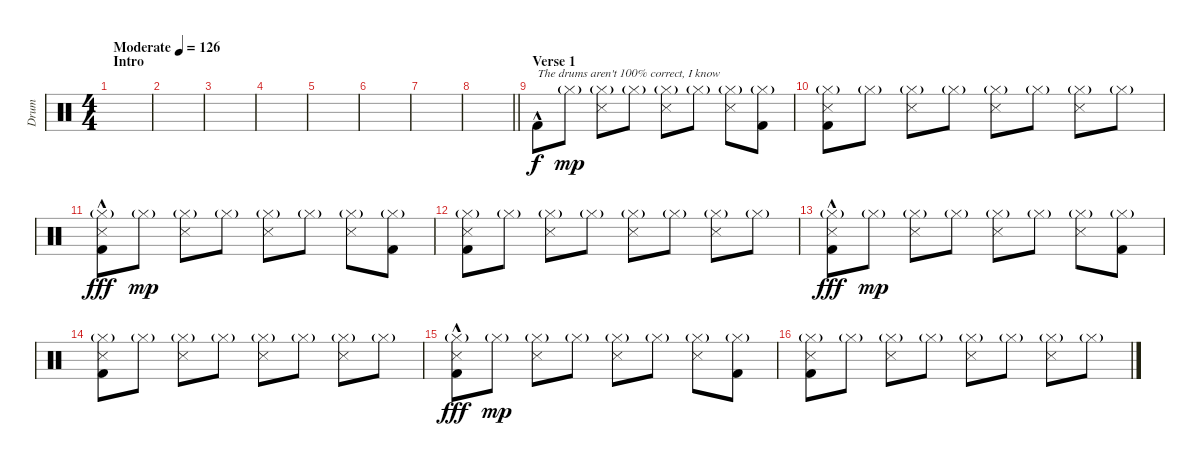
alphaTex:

\track ("Drum" "Drum") {instrument percussion}
\staff {score}
\articulation defaults
\ts (4 4)
\section ("" "Intro")
\tempo (126 "Moderate")
\clef neutral
\ks c
|
|
|
|
|
|
|
\barLineRight lightlight
|
\section ("" "Verse 1")
"Kick (hit) 2"{hac}.8{txt "The drums aren't 100% correct, I know"} "Hi-Hat (closed)"{g}.8{dy mp} ("Hi-Hat (closed)"{g} "Snare (side stick) 3").8 "Hi-Hat (closed)"{g}.8 ("Hi-Hat (closed)"{g} "Snare (side stick) 3").8 "Hi-Hat (closed)"{g}.8 ("Hi-Hat (closed)"{g} "Snare (side stick) 3").8 ("Hi-Hat (closed)"{g} "Kick (hit) 2").8 |
("Hi-Hat (closed)"{g} "Snare (side stick) 3" "Kick (hit) 2").8 "Hi-Hat (closed)"{g}.8 ("Hi-Hat (closed)"{g} "Snare (side stick) 3").8 "Hi-Hat (closed)"{g}.8 ("Hi-Hat (closed)"{g} "Snare (side stick) 3").8 "Hi-Hat (closed)"{g}.8 ("Hi-Hat (closed)"{g} "Snare (side stick) 3").8 "Hi-Hat (closed)"{g}.8 |
("Hi-Hat (closed)"{g} "Snare (side stick) 3" "Kick (hit) 2"{hac}).8{dy fff} "Hi-Hat (closed)"{g}.8{dy mp} ("Hi-Hat (closed)"{g} "Snare (side stick) 3").8 "Hi-Hat (closed)"{g}.8 ("Hi-Hat (closed)"{g} "Snare (side stick) 3").8 "Hi-Hat (closed)"{g}.8 ("Hi-Hat (closed)"{g} "Snare (side stick) 3").8 ("Hi-Hat (closed)"{g} "Kick (hit) 2").8 |
("Hi-Hat (closed)"{g} "Snare (side stick) 3" "Kick (hit) 2").8 "Hi-Hat (closed)"{g}.8 ("Hi-Hat (closed)"{g} "Snare (side stick) 3").8 "Hi-Hat (closed)"{g}.8 ("Hi-Hat (closed)"{g} "Snare (side stick) 3").8 "Hi-Hat (closed)"{g}.8 ("Hi-Hat (closed)"{g} "Snare (side stick) 3").8 "Hi-Hat (closed)"{g}.8 |
("Hi-Hat (closed)"{g} "Snare (side stick) 3" "Kick (hit) 2"{hac}).8{dy fff} "Hi-Hat (closed)"{g}.8{dy mp} ("Hi-Hat (closed)"{g} "Snare (side stick) 3").8 "Hi-Hat (closed)"{g}.8 ("Hi-Hat (closed)"{g} "Snare (side stick) 3").8 "Hi-Hat (closed)"{g}.8 ("Hi-Hat (closed)"{g} "Snare (side stick) 3").8 ("Hi-Hat (closed)"{g} "Kick (hit) 2").8 |
("Hi-Hat (closed)"{g} "Snare (side stick) 3" "Kick (hit) 2").8 "Hi-Hat (closed)"{g}.8 ("Hi-Hat (closed)"{g} "Snare (side stick) 3").8 "Hi-Hat (closed)"{g}.8 ("Hi-Hat (closed)"{g} "Snare (side stick) 3").8 "Hi-Hat (closed)"{g}.8 ("Hi-Hat (closed)"{g} "Snare (side stick) 3").8 "Hi-Hat (closed)"{g}.8 |
("Hi-Hat (closed)"{g} "Snare (side stick) 3" "Kick (hit) 2"{hac}).8{dy fff} "Hi-Hat (closed)"{g}.8{dy mp} ("Hi-Hat (closed)"{g} "Snare (side stick) 3").8 "Hi-Hat (closed)"{g}.8 ("Hi-Hat (closed)"{g} "Snare (side stick) 3").8 "Hi-Hat (closed)"{g}.8 ("Hi-Hat (closed)"{g} "Snare (side stick) 3").8 ("Hi-Hat (closed)"{g} "Kick (hit) 2").8 |
("Hi-Hat (closed)"{g} "Snare (side stick) 3" "Kick (hit) 2").8 "Hi-Hat (closed)"{g}.8 ("Hi-Hat (closed)"{g} "Snare (side stick) 3").8 "Hi-Hat (closed)"{g}.8 ("Hi-Hat (closed)"{g} "Snare (side stick) 3").8 "Hi-Hat (closed)"{g}.8 ("Hi-Hat (closed)"{g} "Snare (side stick) 3").8 "Hi-Hat (closed)"{g}.8
